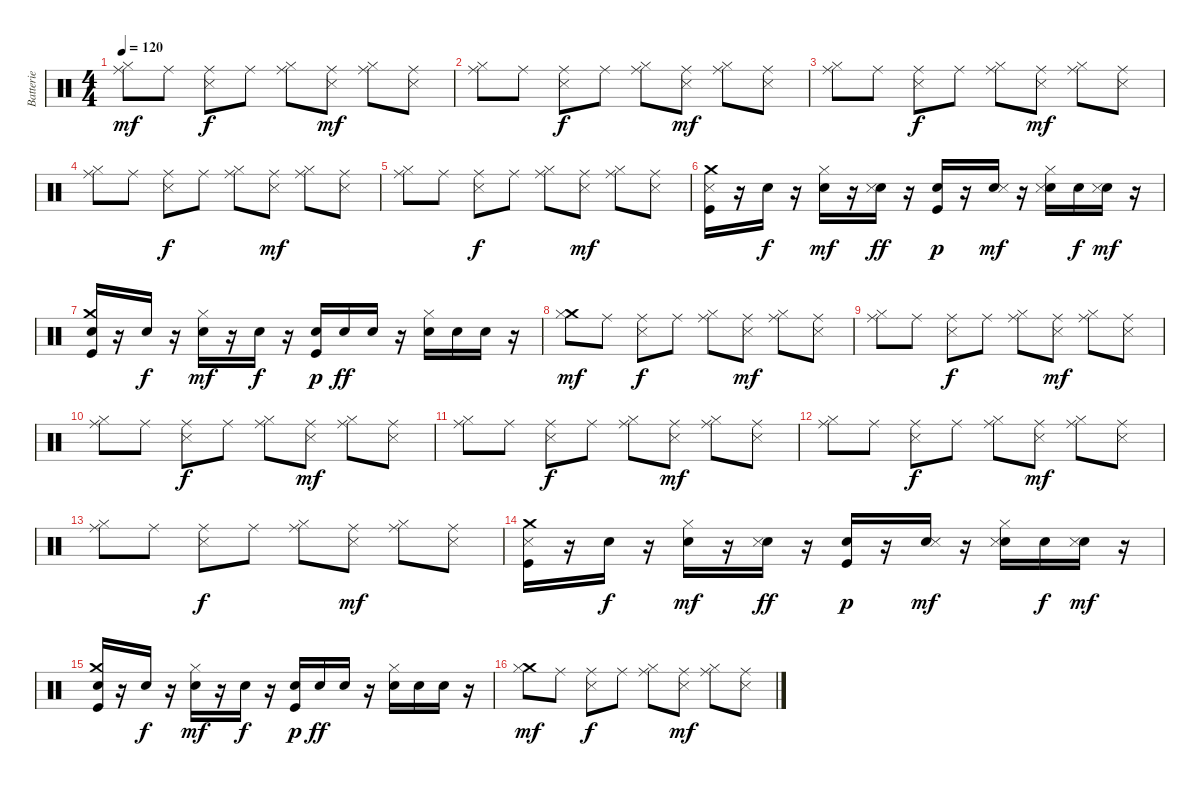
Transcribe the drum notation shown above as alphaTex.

\track ("Batterie" "Batterie") {instrument percussion}
\staff {score}
\articulation defaults
\ts (4 4)
\tempo 120
\clef neutral
\ks c
("Ride (middle)" "Hi-Hat (closed)").8{dy mf} "Ride (middle)".8 ("Ride (middle)" "Snare (side stick) 3").8{dy f} "Ride (middle)".8 ("Ride (middle)" "Hi-Hat (closed)").8 ("Ride (middle)" "Snare (side stick) 3").8{dy mf} ("Ride (middle)" "Hi-Hat (closed)").8 ("Ride (middle)" "Snare (side stick) 3").8 |
("Ride (middle)" "Hi-Hat (closed)").8 "Ride (middle)".8 ("Ride (middle)" "Snare (side stick) 3").8{dy f} "Ride (middle)".8 ("Ride (middle)" "Hi-Hat (closed)").8 ("Ride (middle)" "Snare (side stick) 3").8{dy mf} ("Ride (middle)" "Hi-Hat (closed)").8 ("Ride (middle)" "Snare (side stick) 3").8 |
("Ride (middle)" "Hi-Hat (closed)").8 "Ride (middle)".8 ("Ride (middle)" "Snare (side stick) 3").8{dy f} "Ride (middle)".8 ("Ride (middle)" "Hi-Hat (closed)").8 ("Ride (middle)" "Snare (side stick) 3").8{dy mf} ("Ride (middle)" "Hi-Hat (closed)").8 ("Ride (middle)" "Snare (side stick) 3").8 |
("Ride (middle)" "Hi-Hat (closed)").8 "Ride (middle)".8 ("Ride (middle)" "Snare (side stick) 3").8{dy f} "Ride (middle)".8 ("Ride (middle)" "Hi-Hat (closed)").8 ("Ride (middle)" "Snare (side stick) 3").8{dy mf} ("Ride (middle)" "Hi-Hat (closed)").8 ("Ride (middle)" "Snare (side stick) 3").8 |
("Ride (middle)" "Hi-Hat (closed)").8 "Ride (middle)".8 ("Ride (middle)" "Snare (side stick) 3").8{dy f} "Ride (middle)".8 ("Ride (middle)" "Hi-Hat (closed)").8 ("Ride (middle)" "Snare (side stick) 3").8{dy mf} ("Ride (middle)" "Hi-Hat (closed)").8 ("Ride (middle)" "Snare (side stick) 3").8 |
("Kick (hit)" "Crash medium (hit)" "Snare (side stick) 3").16 r.16 "Snare (hit) 2".16{dy f} r.16 ("Hi-Hat (closed)" "Snare (hit) 2").16{dy mf} r.16 ("Snare (hit) 2" "Snare (side stick) 3").16{dy ff} r.16 ("Kick (hit)" "Snare (hit) 2").16{dy p} r.16 ("Snare (hit) 2" "Snare (side stick) 3").16{dy mf} r.16 ("Hi-Hat (closed)" "Snare (hit) 2" "Snare (side stick) 3").16 "Snare (hit) 2".16{dy f} ("Snare (hit) 2" "Snare (side stick) 3").16{dy mf} r.16 |
("Kick (hit)" "Crash medium (hit)" "Snare (hit) 2").16 r.16 "Snare (hit) 2".16{dy f} r.16 ("Hi-Hat (closed)" "Snare (hit) 2").16{dy mf} r.16 "Snare (hit) 2".16{dy f} r.16 ("Kick (hit)" "Snare (hit) 2").16{dy p} "Snare (hit) 2".16{dy ff} "Snare (hit) 2".16 r.16 ("Hi-Hat (closed)" "Snare (hit) 2").16 "Snare (hit) 2".16 "Snare (hit) 2".16 r.16 |
("Crash medium (hit)" "Hi-Hat (closed)").8{dy mf} "Ride (middle)".8 ("Ride (middle)" "Snare (side stick) 3").8{dy f} "Ride (middle)".8 ("Ride (middle)" "Hi-Hat (closed)").8 ("Ride (middle)" "Snare (side stick) 3").8{dy mf} ("Ride (middle)" "Hi-Hat (closed)").8 ("Ride (middle)" "Snare (side stick) 3").8 |
("Ride (middle)" "Hi-Hat (closed)").8 "Ride (middle)".8 ("Ride (middle)" "Snare (side stick) 3").8{dy f} "Ride (middle)".8 ("Ride (middle)" "Hi-Hat (closed)").8 ("Ride (middle)" "Snare (side stick) 3").8{dy mf} ("Ride (middle)" "Hi-Hat (closed)").8 ("Ride (middle)" "Snare (side stick) 3").8 |
("Ride (middle)" "Hi-Hat (closed)").8 "Ride (middle)".8 ("Ride (middle)" "Snare (side stick) 3").8{dy f} "Ride (middle)".8 ("Ride (middle)" "Hi-Hat (closed)").8 ("Ride (middle)" "Snare (side stick) 3").8{dy mf} ("Ride (middle)" "Hi-Hat (closed)").8 ("Ride (middle)" "Snare (side stick) 3").8 |
("Ride (middle)" "Hi-Hat (closed)").8 "Ride (middle)".8 ("Ride (middle)" "Snare (side stick) 3").8{dy f} "Ride (middle)".8 ("Ride (middle)" "Hi-Hat (closed)").8 ("Ride (middle)" "Snare (side stick) 3").8{dy mf} ("Ride (middle)" "Hi-Hat (closed)").8 ("Ride (middle)" "Snare (side stick) 3").8 |
("Ride (middle)" "Hi-Hat (closed)").8 "Ride (middle)".8 ("Ride (middle)" "Snare (side stick) 3").8{dy f} "Ride (middle)".8 ("Ride (middle)" "Hi-Hat (closed)").8 ("Ride (middle)" "Snare (side stick) 3").8{dy mf} ("Ride (middle)" "Hi-Hat (closed)").8 ("Ride (middle)" "Snare (side stick) 3").8 |
("Ride (middle)" "Hi-Hat (closed)").8 "Ride (middle)".8 ("Ride (middle)" "Snare (side stick) 3").8{dy f} "Ride (middle)".8 ("Ride (middle)" "Hi-Hat (closed)").8 ("Ride (middle)" "Snare (side stick) 3").8{dy mf} ("Ride (middle)" "Hi-Hat (closed)").8 ("Ride (middle)" "Snare (side stick) 3").8 |
("Kick (hit)" "Crash medium (hit)" "Snare (side stick) 3").16 r.16 "Snare (hit) 2".16{dy f} r.16 ("Hi-Hat (closed)" "Snare (hit) 2").16{dy mf} r.16 ("Snare (hit) 2" "Snare (side stick) 3").16{dy ff} r.16 ("Kick (hit)" "Snare (hit) 2").16{dy p} r.16 ("Snare (hit) 2" "Snare (side stick) 3").16{dy mf} r.16 ("Hi-Hat (closed)" "Snare (hit) 2" "Snare (side stick) 3").16 "Snare (hit) 2".16{dy f} ("Snare (hit) 2" "Snare (side stick) 3").16{dy mf} r.16 |
("Kick (hit)" "Crash medium (hit)" "Snare (hit) 2").16 r.16 "Snare (hit) 2".16{dy f} r.16 ("Hi-Hat (closed)" "Snare (hit) 2").16{dy mf} r.16 "Snare (hit) 2".16{dy f} r.16 ("Kick (hit)" "Snare (hit) 2").16{dy p} "Snare (hit) 2".16{dy ff} "Snare (hit) 2".16 r.16 ("Hi-Hat (closed)" "Snare (hit) 2").16 "Snare (hit) 2".16 "Snare (hit) 2".16 r.16 |
("Crash medium (hit)" "Hi-Hat (closed)").8{dy mf} "Ride (middle)".8 ("Ride (middle)" "Snare (side stick) 3").8{dy f} "Ride (middle)".8 ("Ride (middle)" "Hi-Hat (closed)").8 ("Ride (middle)" "Snare (side stick) 3").8{dy mf} ("Ride (middle)" "Hi-Hat (closed)").8 ("Ride (middle)" "Snare (side stick) 3").8
